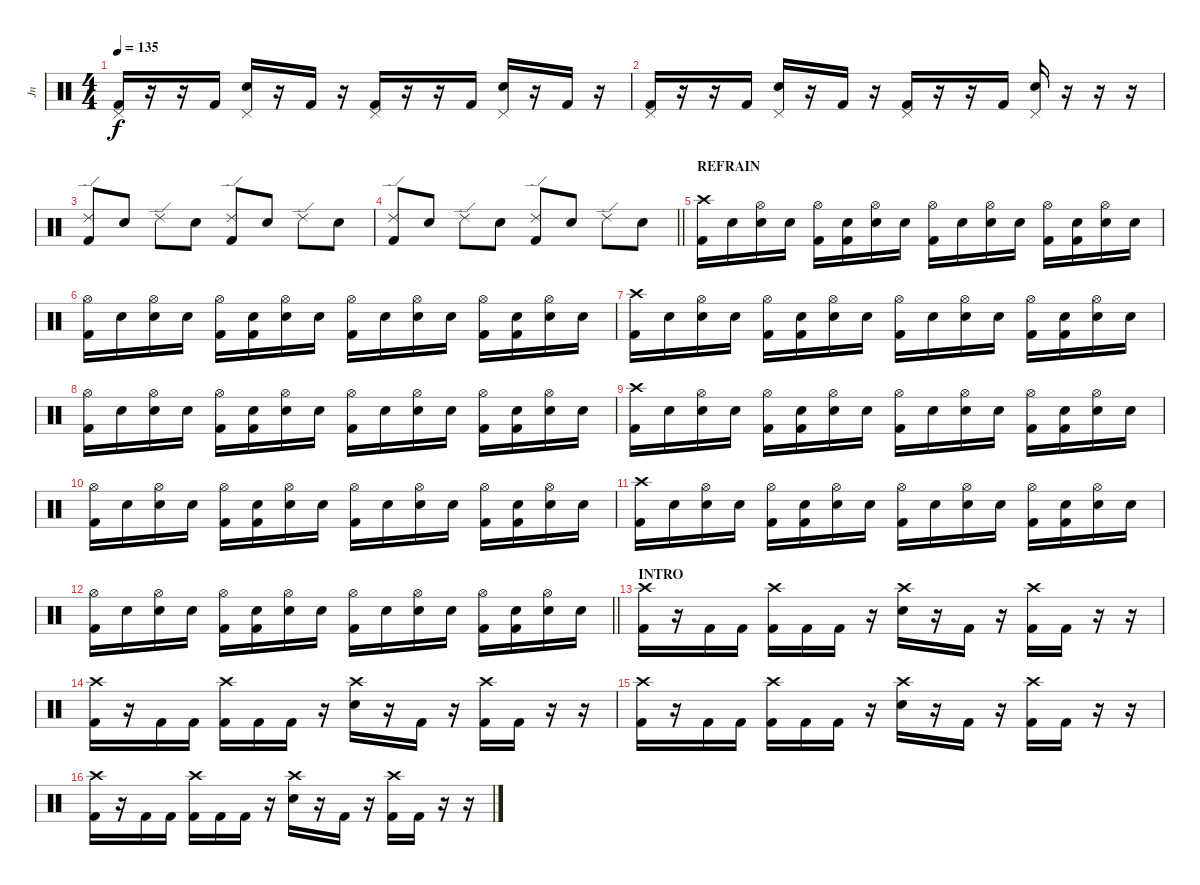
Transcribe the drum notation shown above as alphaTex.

\track ("Jn" "Jn") {instrument percussion}
\staff {score}
\articulation defaults
\ts (4 4)
\tempo 135
\clef neutral
\ks c
("Pedal Hi-Hat (hit)" "Kick (hit) 2").16{dy f} r.16 r.16 "Kick (hit) 2".16 ("Pedal Hi-Hat (hit)" "Electric Snare (hit)").16 r.16 "Kick (hit) 2".16 r.16 ("Pedal Hi-Hat (hit)" "Kick (hit) 2").16 r.16 r.16 "Kick (hit) 2".16 ("Pedal Hi-Hat (hit)" "Electric Snare (hit)").16 r.16 "Kick (hit) 2".16 r.16 |
("Pedal Hi-Hat (hit)" "Kick (hit) 2").16 r.16 r.16 "Kick (hit) 2".16 ("Pedal Hi-Hat (hit)" "Electric Snare (hit)").16 r.16 "Kick (hit) 2".16 r.16 ("Pedal Hi-Hat (hit)" "Kick (hit) 2").16 r.16 r.16 "Kick (hit) 2".16 ("Pedal Hi-Hat (hit)" "Electric Snare (hit)").16 r.16 r.16 r.16 |
("Ride (edge) 2" "Kick (hit) 2").8 "Snare (hit)".8 "Ride (edge) 2".8 "Snare (hit)".8 ("Ride (edge) 2" "Kick (hit) 2").8 "Snare (hit)".8 "Ride (edge) 2".8 "Snare (hit)".8 |
\barLineRight lightlight
("Ride (edge) 2" "Kick (hit) 2").8 "Snare (hit)".8 "Ride (edge) 2".8 "Snare (hit)".8 ("Ride (edge) 2" "Kick (hit) 2").8 "Snare (hit)".8 "Ride (edge) 2".8 "Snare (hit)".8 |
\section ("" "REFRAIN")
("Crash high (hit)" "Kick (hit) 2").16 "Snare (hit)".16 ("Hi-Hat (open)" "Electric Snare (hit)").16 "Snare (hit)".16 ("Hi-Hat (open)" "Kick (hit) 2").16 ("Snare (hit)" "Kick (hit) 2").16 ("Hi-Hat (open)" "Electric Snare (hit)").16 "Snare (hit)".16 ("Hi-Hat (open)" "Kick (hit) 2").16 "Snare (hit)".16 ("Hi-Hat (open)" "Electric Snare (hit)").16 "Snare (hit)".16 ("Hi-Hat (open)" "Kick (hit) 2").16 ("Snare (hit)" "Kick (hit) 2").16 ("Hi-Hat (open)" "Electric Snare (hit)").16 "Snare (hit)".16 |
("Hi-Hat (open)" "Kick (hit) 2").16 "Snare (hit)".16 ("Hi-Hat (open)" "Electric Snare (hit)").16 "Snare (hit)".16 ("Hi-Hat (open)" "Kick (hit) 2").16 ("Snare (hit)" "Kick (hit) 2").16 ("Hi-Hat (open)" "Electric Snare (hit)").16 "Snare (hit)".16 ("Hi-Hat (open)" "Kick (hit) 2").16 "Snare (hit)".16 ("Hi-Hat (open)" "Electric Snare (hit)").16 "Snare (hit)".16 ("Hi-Hat (open)" "Kick (hit) 2").16 ("Snare (hit)" "Kick (hit) 2").16 ("Hi-Hat (open)" "Electric Snare (hit)").16 "Snare (hit)".16 |
("Crash high (hit)" "Kick (hit) 2").16 "Snare (hit)".16 ("Hi-Hat (open)" "Electric Snare (hit)").16 "Snare (hit)".16 ("Hi-Hat (open)" "Kick (hit) 2").16 ("Snare (hit)" "Kick (hit) 2").16 ("Hi-Hat (open)" "Electric Snare (hit)").16 "Snare (hit)".16 ("Hi-Hat (open)" "Kick (hit) 2").16 "Snare (hit)".16 ("Hi-Hat (open)" "Electric Snare (hit)").16 "Snare (hit)".16 ("Hi-Hat (open)" "Kick (hit) 2").16 ("Snare (hit)" "Kick (hit) 2").16 ("Hi-Hat (open)" "Electric Snare (hit)").16 "Snare (hit)".16 |
("Hi-Hat (open)" "Kick (hit) 2").16 "Snare (hit)".16 ("Hi-Hat (open)" "Electric Snare (hit)").16 "Snare (hit)".16 ("Hi-Hat (open)" "Kick (hit) 2").16 ("Snare (hit)" "Kick (hit) 2").16 ("Hi-Hat (open)" "Electric Snare (hit)").16 "Snare (hit)".16 ("Hi-Hat (open)" "Kick (hit) 2").16 "Snare (hit)".16 ("Hi-Hat (open)" "Electric Snare (hit)").16 "Snare (hit)".16 ("Hi-Hat (open)" "Kick (hit) 2").16 ("Snare (hit)" "Kick (hit) 2").16 ("Hi-Hat (open)" "Electric Snare (hit)").16 "Snare (hit)".16 |
("Crash high (hit)" "Kick (hit) 2").16 "Snare (hit)".16 ("Hi-Hat (open)" "Electric Snare (hit)").16 "Snare (hit)".16 ("Hi-Hat (open)" "Kick (hit) 2").16 ("Snare (hit)" "Kick (hit) 2").16 ("Hi-Hat (open)" "Electric Snare (hit)").16 "Snare (hit)".16 ("Hi-Hat (open)" "Kick (hit) 2").16 "Snare (hit)".16 ("Hi-Hat (open)" "Electric Snare (hit)").16 "Snare (hit)".16 ("Hi-Hat (open)" "Kick (hit) 2").16 ("Snare (hit)" "Kick (hit) 2").16 ("Hi-Hat (open)" "Electric Snare (hit)").16 "Snare (hit)".16 |
("Hi-Hat (open)" "Kick (hit) 2").16 "Snare (hit)".16 ("Hi-Hat (open)" "Electric Snare (hit)").16 "Snare (hit)".16 ("Hi-Hat (open)" "Kick (hit) 2").16 ("Snare (hit)" "Kick (hit) 2").16 ("Hi-Hat (open)" "Electric Snare (hit)").16 "Snare (hit)".16 ("Hi-Hat (open)" "Kick (hit) 2").16 "Snare (hit)".16 ("Hi-Hat (open)" "Electric Snare (hit)").16 "Snare (hit)".16 ("Hi-Hat (open)" "Kick (hit) 2").16 ("Snare (hit)" "Kick (hit) 2").16 ("Hi-Hat (open)" "Electric Snare (hit)").16 "Snare (hit)".16 |
("Crash high (hit)" "Kick (hit) 2").16 "Snare (hit)".16 ("Hi-Hat (open)" "Electric Snare (hit)").16 "Snare (hit)".16 ("Hi-Hat (open)" "Kick (hit) 2").16 ("Snare (hit)" "Kick (hit) 2").16 ("Hi-Hat (open)" "Electric Snare (hit)").16 "Snare (hit)".16 ("Hi-Hat (open)" "Kick (hit) 2").16 "Snare (hit)".16 ("Hi-Hat (open)" "Electric Snare (hit)").16 "Snare (hit)".16 ("Hi-Hat (open)" "Kick (hit) 2").16 ("Snare (hit)" "Kick (hit) 2").16 ("Hi-Hat (open)" "Electric Snare (hit)").16 "Snare (hit)".16 |
\barLineRight lightlight
("Hi-Hat (open)" "Kick (hit) 2").16 "Snare (hit)".16 ("Hi-Hat (open)" "Electric Snare (hit)").16 "Snare (hit)".16 ("Hi-Hat (open)" "Kick (hit) 2").16 ("Snare (hit)" "Kick (hit) 2").16 ("Hi-Hat (open)" "Electric Snare (hit)").16 "Snare (hit)".16 ("Hi-Hat (open)" "Kick (hit) 2").16 "Snare (hit)".16 ("Hi-Hat (open)" "Electric Snare (hit)").16 "Snare (hit)".16 ("Hi-Hat (open)" "Kick (hit) 2").16 ("Snare (hit)" "Kick (hit) 2").16 ("Hi-Hat (open)" "Electric Snare (hit)").16 "Snare (hit)".16 |
\section ("" "INTRO")
("Crash high (hit)" "Kick (hit) 2").16 r.16 "Kick (hit) 2".16 "Kick (hit) 2".16 ("Crash high (hit)" "Kick (hit) 2").16 "Kick (hit) 2".16 "Kick (hit) 2".16 r.16 ("Crash high (hit)" "Electric Snare (hit)").16 r.16 "Kick (hit) 2".16 r.16 ("Crash high (hit)" "Kick (hit) 2").16 "Kick (hit) 2".16 r.16 r.16 |
("Crash high (hit)" "Kick (hit) 2").16 r.16 "Kick (hit) 2".16 "Kick (hit) 2".16 ("Crash high (hit)" "Kick (hit) 2").16 "Kick (hit) 2".16 "Kick (hit) 2".16 r.16 ("Crash high (hit)" "Electric Snare (hit)").16 r.16 "Kick (hit) 2".16 r.16 ("Crash high (hit)" "Kick (hit) 2").16 "Kick (hit) 2".16 r.16 r.16 |
("Crash high (hit)" "Kick (hit) 2").16 r.16 "Kick (hit) 2".16 "Kick (hit) 2".16 ("Crash high (hit)" "Kick (hit) 2").16 "Kick (hit) 2".16 "Kick (hit) 2".16 r.16 ("Crash high (hit)" "Electric Snare (hit)").16 r.16 "Kick (hit) 2".16 r.16 ("Crash high (hit)" "Kick (hit) 2").16 "Kick (hit) 2".16 r.16 r.16 |
("Crash high (hit)" "Kick (hit) 2").16 r.16 "Kick (hit) 2".16 "Kick (hit) 2".16 ("Crash high (hit)" "Kick (hit) 2").16 "Kick (hit) 2".16 "Kick (hit) 2".16 r.16 ("Crash high (hit)" "Electric Snare (hit)").16 r.16 "Kick (hit) 2".16 r.16 ("Crash high (hit)" "Kick (hit) 2").16 "Kick (hit) 2".16 r.16 r.16
